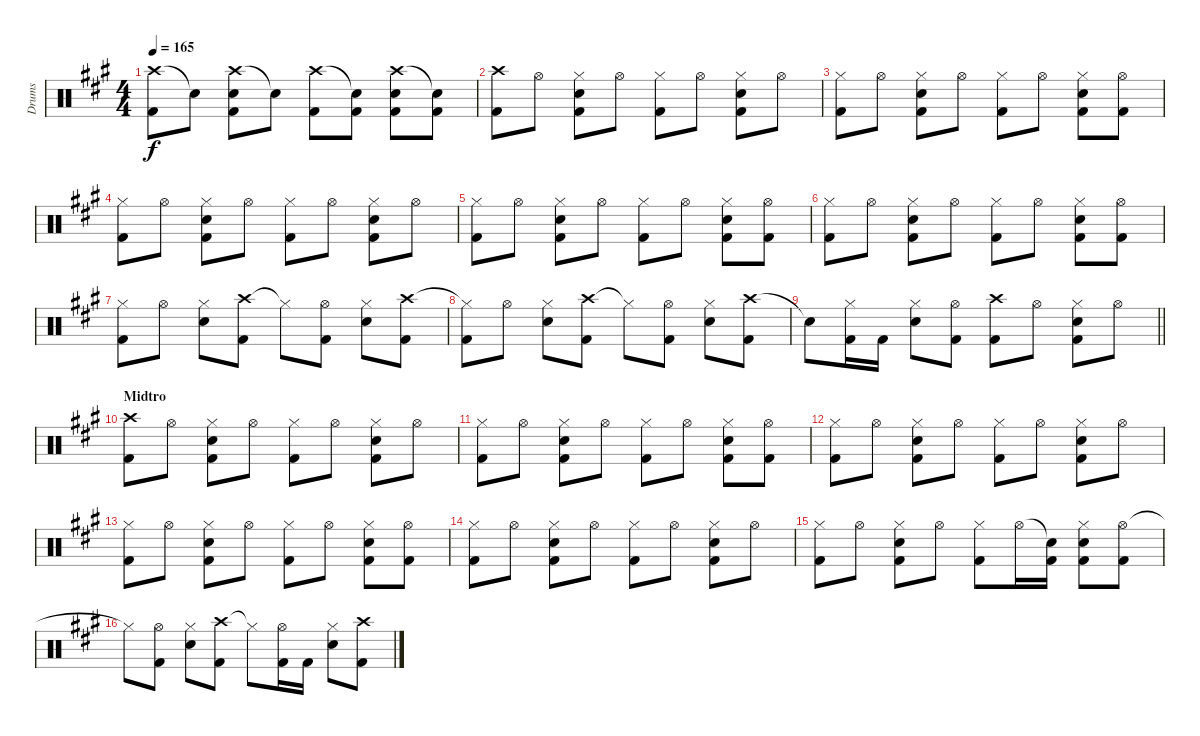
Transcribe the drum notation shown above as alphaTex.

\track ("Drums" "Drums") {instrument percussion}
\staff {score}
\articulation defaults
\ts (4 4)
\tempo 165
\clef neutral
\ks a
("Crash high (hit)" "Kick (hit) 2").8{dy f} "Snare (hit)"{t}.8 ("Crash high (hit)" "Snare (hit) 2" "Kick (hit) 2").8 "Snare (hit)"{t}.8 ("Crash high (hit)" "Kick (hit) 2").8 ("Snare (hit)"{t} "Kick (hit) 2").8 ("Crash high (hit)" "Snare (hit) 2" "Kick (hit) 2").8 ("Snare (hit)"{t} "Kick (hit) 2").8 |
("Crash high (hit)" "Kick (hit) 2").8 "Hi-Hat (open)".8 ("Hi-Hat (closed)" "Snare (hit) 2" "Kick (hit) 2").8 "Hi-Hat (open)".8 ("Hi-Hat (closed)" "Kick (hit) 2").8 "Hi-Hat (open)".8 ("Hi-Hat (closed)" "Snare (hit) 2" "Kick (hit) 2").8 "Hi-Hat (open)".8 |
("Hi-Hat (closed)" "Kick (hit) 2").8 "Hi-Hat (open)".8 ("Hi-Hat (closed)" "Snare (hit) 2" "Kick (hit) 2").8 "Hi-Hat (open)".8 ("Hi-Hat (closed)" "Kick (hit) 2").8 "Hi-Hat (open)".8 ("Hi-Hat (closed)" "Snare (hit) 2" "Kick (hit) 2").8 ("Hi-Hat (open)" "Kick (hit) 2").8 |
("Hi-Hat (closed)" "Kick (hit) 2").8 "Hi-Hat (open)".8 ("Hi-Hat (closed)" "Snare (hit) 2" "Kick (hit) 2").8 "Hi-Hat (open)".8 ("Hi-Hat (closed)" "Kick (hit) 2").8 "Hi-Hat (open)".8 ("Hi-Hat (closed)" "Snare (hit) 2" "Kick (hit) 2").8 "Hi-Hat (open)".8 |
("Hi-Hat (closed)" "Kick (hit) 2").8 "Hi-Hat (open)".8 ("Hi-Hat (closed)" "Snare (hit) 2" "Kick (hit) 2").8 "Hi-Hat (open)".8 ("Hi-Hat (closed)" "Kick (hit) 2").8 "Hi-Hat (open)".8 ("Hi-Hat (closed)" "Snare (hit) 2" "Kick (hit) 2").8 ("Hi-Hat (open)" "Kick (hit) 2").8 |
("Hi-Hat (closed)" "Kick (hit) 2").8 "Hi-Hat (open)".8 ("Hi-Hat (closed)" "Snare (hit) 2" "Kick (hit) 2").8 "Hi-Hat (open)".8 ("Hi-Hat (closed)" "Kick (hit) 2").8 "Hi-Hat (open)".8 ("Hi-Hat (closed)" "Snare (hit) 2" "Kick (hit) 2").8 ("Hi-Hat (open)" "Kick (hit) 2").8 |
("Hi-Hat (closed)" "Kick (hit) 2").8 "Hi-Hat (open)".8 ("Hi-Hat (closed)" "Snare (hit) 2").8 ("Crash high (hit)" "Kick (hit) 2").8 "Hi-Hat (closed)"{t}.8 ("Hi-Hat (open)" "Kick (hit) 2").8 ("Hi-Hat (closed)" "Snare (hit) 2").8 ("Crash high (hit)" "Kick (hit) 2").8 |
("Hi-Hat (closed)"{t} "Kick (hit) 2").8 "Hi-Hat (open)".8 ("Hi-Hat (closed)" "Snare (hit) 2").8 ("Crash high (hit)" "Kick (hit) 2").8 "Hi-Hat (closed)"{t}.8 ("Hi-Hat (open)" "Kick (hit) 2").8 ("Hi-Hat (closed)" "Snare (hit) 2").8 ("Crash high (hit)" "Kick (hit) 2").8 |
\barLineRight lightlight "Snare (hit)"{t}.8
("Hi-Hat (closed)" "Kick (hit) 2").16 "Kick (hit) 2".16 ("Hi-Hat (closed)" "Snare (hit) 2").8 ("Hi-Hat (open)" "Kick (hit) 2").8 ("Crash high (hit)" "Kick (hit) 2").8 "Hi-Hat (open)".8 ("Hi-Hat (closed)" "Snare (hit) 2" "Kick (hit) 2").8 "Hi-Hat (open)".8 |
\section ("" "Midtro")
("Crash high (hit)" "Kick (hit) 2").8 "Hi-Hat (open)".8 ("Hi-Hat (closed)" "Snare (hit) 2" "Kick (hit) 2").8 "Hi-Hat (open)".8 ("Hi-Hat (closed)" "Kick (hit) 2").8 "Hi-Hat (open)".8 ("Hi-Hat (closed)" "Snare (hit) 2" "Kick (hit) 2").8 "Hi-Hat (open)".8 |
("Hi-Hat (closed)" "Kick (hit) 2").8 "Hi-Hat (open)".8 ("Hi-Hat (closed)" "Snare (hit) 2" "Kick (hit) 2").8 "Hi-Hat (open)".8 ("Hi-Hat (closed)" "Kick (hit) 2").8 "Hi-Hat (open)".8 ("Hi-Hat (closed)" "Snare (hit) 2" "Kick (hit) 2").8 ("Hi-Hat (open)" "Kick (hit) 2").8 |
("Hi-Hat (closed)" "Kick (hit) 2").8 "Hi-Hat (open)".8 ("Hi-Hat (closed)" "Snare (hit) 2" "Kick (hit) 2").8 "Hi-Hat (open)".8 ("Hi-Hat (closed)" "Kick (hit) 2").8 "Hi-Hat (open)".8 ("Hi-Hat (closed)" "Snare (hit) 2" "Kick (hit) 2").8 "Hi-Hat (open)".8 |
("Hi-Hat (closed)" "Kick (hit) 2").8 "Hi-Hat (open)".8 ("Hi-Hat (closed)" "Snare (hit) 2" "Kick (hit) 2").8 "Hi-Hat (open)".8 ("Hi-Hat (closed)" "Kick (hit) 2").8 "Hi-Hat (open)".8 ("Hi-Hat (closed)" "Snare (hit) 2" "Kick (hit) 2").8 ("Hi-Hat (open)" "Kick (hit) 2").8 |
("Hi-Hat (closed)" "Kick (hit) 2").8 "Hi-Hat (open)".8 ("Hi-Hat (closed)" "Snare (hit) 2" "Kick (hit) 2").8 "Hi-Hat (open)".8 ("Hi-Hat (closed)" "Kick (hit) 2").8 "Hi-Hat (open)".8 ("Hi-Hat (closed)" "Snare (hit) 2" "Kick (hit) 2").8 "Hi-Hat (open)".8 |
("Hi-Hat (closed)" "Kick (hit) 2").8 "Hi-Hat (open)".8 ("Hi-Hat (closed)" "Snare (hit) 2" "Kick (hit) 2").8 "Hi-Hat (open)".8 ("Hi-Hat (closed)" "Kick (hit) 2").8 "Hi-Hat (open)".16 ("Snare (hit)"{t} "Kick (hit) 2").16 ("Hi-Hat (closed)" "Snare (hit) 2" "Kick (hit) 2").8 ("Hi-Hat (open)" "Kick (hit) 2").8 |
"Hi-Hat (closed)"{t}.8 ("Hi-Hat (open)" "Kick (hit) 2").8 ("Hi-Hat (closed)" "Snare (hit) 2").8 ("Crash high (hit)" "Kick (hit) 2").8 "Hi-Hat (closed)"{t}.8 ("Hi-Hat (open)" "Kick (hit) 2").16 "Kick (hit) 2".16 ("Hi-Hat (closed)" "Snare (hit) 2").8 ("Crash high (hit)" "Kick (hit) 2").8
